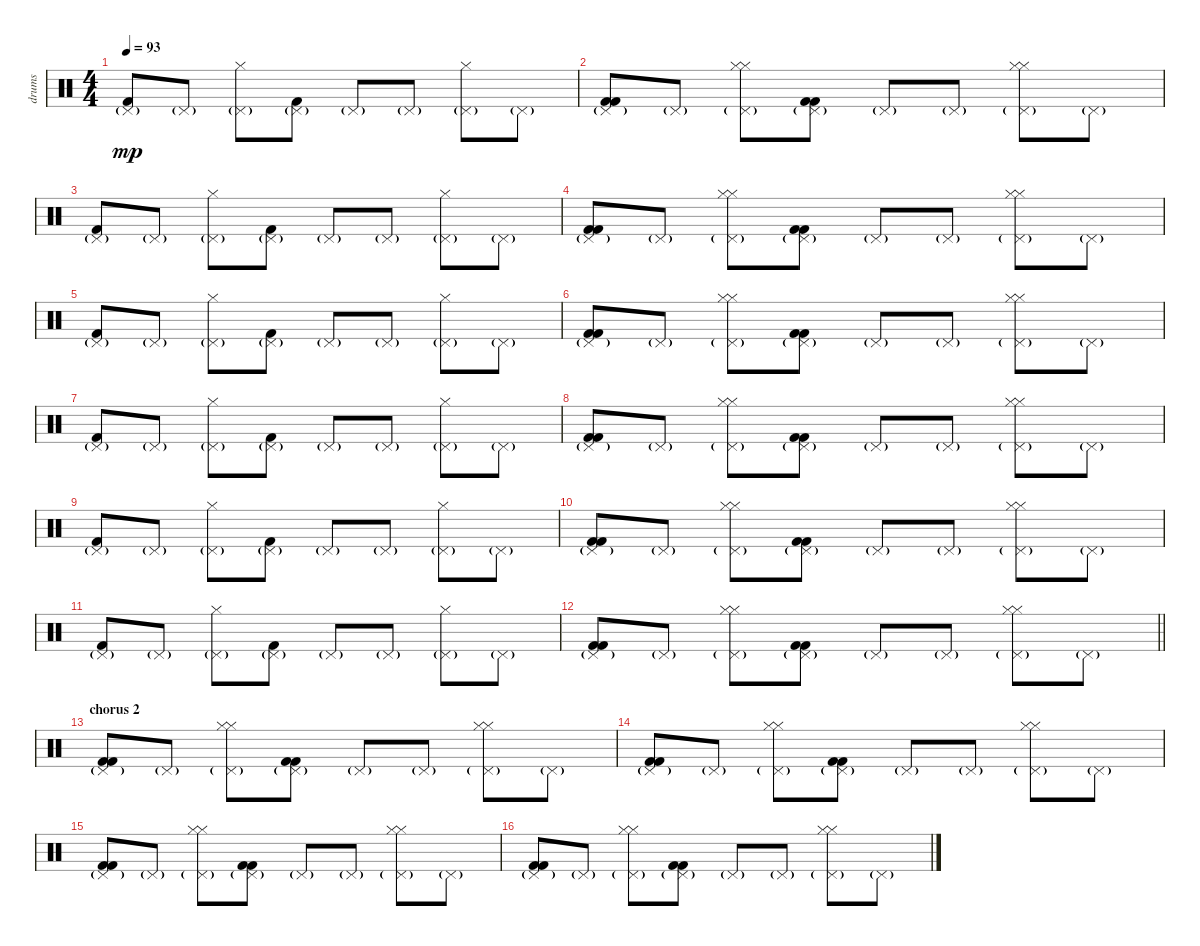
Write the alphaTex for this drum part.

\track ("drums" "drums") {instrument percussion}
\staff {score}
\articulation defaults
\ts (4 4)
\tempo 93
\clef neutral
\ks c
("Kick (hit) 2" "Pedal Hi-Hat (hit)"{g}).8{dy mp} "Pedal Hi-Hat (hit)"{g}.8 ("Hi-Hat (closed)" "Pedal Hi-Hat (hit)"{g}).8 ("Kick (hit) 2" "Pedal Hi-Hat (hit)"{g}).8 "Pedal Hi-Hat (hit)"{g}.8 "Pedal Hi-Hat (hit)"{g}.8 ("Hi-Hat (closed)" "Pedal Hi-Hat (hit)"{g}).8 "Pedal Hi-Hat (hit)"{g}.8 |
("Kick (hit) 2" "Kick (hit) 2" "Pedal Hi-Hat (hit)"{g}).8 "Pedal Hi-Hat (hit)"{g}.8 ("Hi-Hat (closed)" "Hi-Hat (closed)" "Pedal Hi-Hat (hit)"{g}).8 ("Kick (hit) 2" "Kick (hit) 2" "Pedal Hi-Hat (hit)"{g}).8 "Pedal Hi-Hat (hit)"{g}.8 "Pedal Hi-Hat (hit)"{g}.8 ("Hi-Hat (closed)" "Hi-Hat (closed)" "Pedal Hi-Hat (hit)"{g}).8 "Pedal Hi-Hat (hit)"{g}.8 |
("Kick (hit) 2" "Pedal Hi-Hat (hit)"{g}).8 "Pedal Hi-Hat (hit)"{g}.8 ("Hi-Hat (closed)" "Pedal Hi-Hat (hit)"{g}).8 ("Kick (hit) 2" "Pedal Hi-Hat (hit)"{g}).8 "Pedal Hi-Hat (hit)"{g}.8 "Pedal Hi-Hat (hit)"{g}.8 ("Hi-Hat (closed)" "Pedal Hi-Hat (hit)"{g}).8 "Pedal Hi-Hat (hit)"{g}.8 |
("Kick (hit) 2" "Kick (hit) 2" "Pedal Hi-Hat (hit)"{g}).8 "Pedal Hi-Hat (hit)"{g}.8 ("Hi-Hat (closed)" "Hi-Hat (closed)" "Pedal Hi-Hat (hit)"{g}).8 ("Kick (hit) 2" "Kick (hit) 2" "Pedal Hi-Hat (hit)"{g}).8 "Pedal Hi-Hat (hit)"{g}.8 "Pedal Hi-Hat (hit)"{g}.8 ("Hi-Hat (closed)" "Hi-Hat (closed)" "Pedal Hi-Hat (hit)"{g}).8 "Pedal Hi-Hat (hit)"{g}.8 |
("Kick (hit) 2" "Pedal Hi-Hat (hit)"{g}).8 "Pedal Hi-Hat (hit)"{g}.8 ("Hi-Hat (closed)" "Pedal Hi-Hat (hit)"{g}).8 ("Kick (hit) 2" "Pedal Hi-Hat (hit)"{g}).8 "Pedal Hi-Hat (hit)"{g}.8 "Pedal Hi-Hat (hit)"{g}.8 ("Hi-Hat (closed)" "Pedal Hi-Hat (hit)"{g}).8 "Pedal Hi-Hat (hit)"{g}.8 |
("Kick (hit) 2" "Kick (hit) 2" "Pedal Hi-Hat (hit)"{g}).8 "Pedal Hi-Hat (hit)"{g}.8 ("Hi-Hat (closed)" "Hi-Hat (closed)" "Pedal Hi-Hat (hit)"{g}).8 ("Kick (hit) 2" "Kick (hit) 2" "Pedal Hi-Hat (hit)"{g}).8 "Pedal Hi-Hat (hit)"{g}.8 "Pedal Hi-Hat (hit)"{g}.8 ("Hi-Hat (closed)" "Hi-Hat (closed)" "Pedal Hi-Hat (hit)"{g}).8 "Pedal Hi-Hat (hit)"{g}.8 |
("Kick (hit) 2" "Pedal Hi-Hat (hit)"{g}).8 "Pedal Hi-Hat (hit)"{g}.8 ("Hi-Hat (closed)" "Pedal Hi-Hat (hit)"{g}).8 ("Kick (hit) 2" "Pedal Hi-Hat (hit)"{g}).8 "Pedal Hi-Hat (hit)"{g}.8 "Pedal Hi-Hat (hit)"{g}.8 ("Hi-Hat (closed)" "Pedal Hi-Hat (hit)"{g}).8 "Pedal Hi-Hat (hit)"{g}.8 |
("Kick (hit) 2" "Kick (hit) 2" "Pedal Hi-Hat (hit)"{g}).8 "Pedal Hi-Hat (hit)"{g}.8 ("Hi-Hat (closed)" "Hi-Hat (closed)" "Pedal Hi-Hat (hit)"{g}).8 ("Kick (hit) 2" "Kick (hit) 2" "Pedal Hi-Hat (hit)"{g}).8 "Pedal Hi-Hat (hit)"{g}.8 "Pedal Hi-Hat (hit)"{g}.8 ("Hi-Hat (closed)" "Hi-Hat (closed)" "Pedal Hi-Hat (hit)"{g}).8 "Pedal Hi-Hat (hit)"{g}.8 |
("Kick (hit) 2" "Pedal Hi-Hat (hit)"{g}).8 "Pedal Hi-Hat (hit)"{g}.8 ("Hi-Hat (closed)" "Pedal Hi-Hat (hit)"{g}).8 ("Kick (hit) 2" "Pedal Hi-Hat (hit)"{g}).8 "Pedal Hi-Hat (hit)"{g}.8 "Pedal Hi-Hat (hit)"{g}.8 ("Hi-Hat (closed)" "Pedal Hi-Hat (hit)"{g}).8 "Pedal Hi-Hat (hit)"{g}.8 |
("Kick (hit) 2" "Kick (hit) 2" "Pedal Hi-Hat (hit)"{g}).8 "Pedal Hi-Hat (hit)"{g}.8 ("Hi-Hat (closed)" "Hi-Hat (closed)" "Pedal Hi-Hat (hit)"{g}).8 ("Kick (hit) 2" "Kick (hit) 2" "Pedal Hi-Hat (hit)"{g}).8 "Pedal Hi-Hat (hit)"{g}.8 "Pedal Hi-Hat (hit)"{g}.8 ("Hi-Hat (closed)" "Hi-Hat (closed)" "Pedal Hi-Hat (hit)"{g}).8 "Pedal Hi-Hat (hit)"{g}.8 |
("Kick (hit) 2" "Pedal Hi-Hat (hit)"{g}).8 "Pedal Hi-Hat (hit)"{g}.8 ("Hi-Hat (closed)" "Pedal Hi-Hat (hit)"{g}).8 ("Kick (hit) 2" "Pedal Hi-Hat (hit)"{g}).8 "Pedal Hi-Hat (hit)"{g}.8 "Pedal Hi-Hat (hit)"{g}.8 ("Hi-Hat (closed)" "Pedal Hi-Hat (hit)"{g}).8 "Pedal Hi-Hat (hit)"{g}.8 |
\barLineRight lightlight
("Kick (hit) 2" "Kick (hit) 2" "Pedal Hi-Hat (hit)"{g}).8 "Pedal Hi-Hat (hit)"{g}.8 ("Hi-Hat (closed)" "Hi-Hat (closed)" "Pedal Hi-Hat (hit)"{g}).8 ("Kick (hit) 2" "Kick (hit) 2" "Pedal Hi-Hat (hit)"{g}).8 "Pedal Hi-Hat (hit)"{g}.8 "Pedal Hi-Hat (hit)"{g}.8 ("Hi-Hat (closed)" "Hi-Hat (closed)" "Pedal Hi-Hat (hit)"{g}).8 "Pedal Hi-Hat (hit)"{g}.8 |
\section ("" "chorus 2")
("Kick (hit) 2" "Kick (hit) 2" "Pedal Hi-Hat (hit)"{g}).8 "Pedal Hi-Hat (hit)"{g}.8 ("Hi-Hat (closed)" "Hi-Hat (closed)" "Pedal Hi-Hat (hit)"{g}).8 ("Kick (hit) 2" "Kick (hit) 2" "Pedal Hi-Hat (hit)"{g}).8 "Pedal Hi-Hat (hit)"{g}.8 "Pedal Hi-Hat (hit)"{g}.8 ("Hi-Hat (closed)" "Hi-Hat (closed)" "Pedal Hi-Hat (hit)"{g}).8 "Pedal Hi-Hat (hit)"{g}.8 |
("Kick (hit) 2" "Kick (hit) 2" "Pedal Hi-Hat (hit)"{g}).8 "Pedal Hi-Hat (hit)"{g}.8 ("Hi-Hat (closed)" "Hi-Hat (closed)" "Pedal Hi-Hat (hit)"{g}).8 ("Kick (hit) 2" "Kick (hit) 2" "Pedal Hi-Hat (hit)"{g}).8 "Pedal Hi-Hat (hit)"{g}.8 "Pedal Hi-Hat (hit)"{g}.8 ("Hi-Hat (closed)" "Hi-Hat (closed)" "Pedal Hi-Hat (hit)"{g}).8 "Pedal Hi-Hat (hit)"{g}.8 |
("Kick (hit) 2" "Kick (hit) 2" "Pedal Hi-Hat (hit)"{g}).8 "Pedal Hi-Hat (hit)"{g}.8 ("Hi-Hat (closed)" "Hi-Hat (closed)" "Pedal Hi-Hat (hit)"{g}).8 ("Kick (hit) 2" "Kick (hit) 2" "Pedal Hi-Hat (hit)"{g}).8 "Pedal Hi-Hat (hit)"{g}.8 "Pedal Hi-Hat (hit)"{g}.8 ("Hi-Hat (closed)" "Hi-Hat (closed)" "Pedal Hi-Hat (hit)"{g}).8 "Pedal Hi-Hat (hit)"{g}.8 |
("Kick (hit) 2" "Kick (hit) 2" "Pedal Hi-Hat (hit)"{g}).8 "Pedal Hi-Hat (hit)"{g}.8 ("Hi-Hat (closed)" "Hi-Hat (closed)" "Pedal Hi-Hat (hit)"{g}).8 ("Kick (hit) 2" "Kick (hit) 2" "Pedal Hi-Hat (hit)"{g}).8 "Pedal Hi-Hat (hit)"{g}.8 "Pedal Hi-Hat (hit)"{g}.8 ("Hi-Hat (closed)" "Hi-Hat (closed)" "Pedal Hi-Hat (hit)"{g}).8 "Pedal Hi-Hat (hit)"{g}.8
